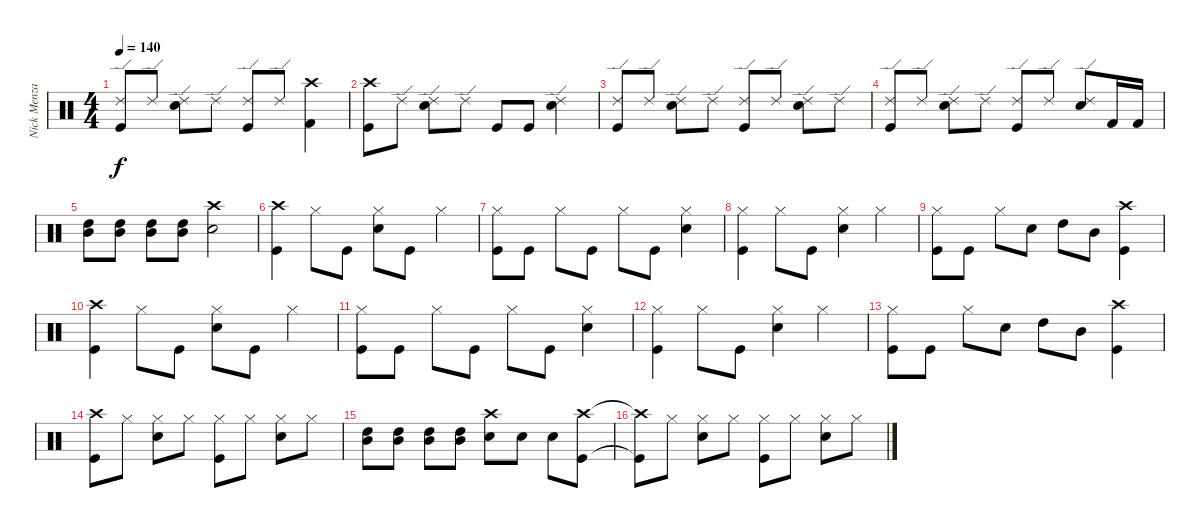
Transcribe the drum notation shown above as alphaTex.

\track ("Nick Menza (Drums)" "Nick Menza") {instrument percussion}
\staff {score}
\articulation defaults
\ts (4 4)
\tempo 140
\clef neutral
\ks c
("Ride (edge) 2" "Kick (hit)").8{dy f} "Ride (edge) 2".8 ("Ride (edge) 2" "Snare (hit) 2").8 "Ride (edge) 2".8 ("Ride (edge) 2" "Kick (hit)").8 "Ride (edge) 2".8 ("Kick (hit) 2" "Crash high (hit)").4 |
("Crash high (hit)" "Kick (hit)").8 "Ride (edge) 2".8 ("Ride (edge) 2" "Snare (hit) 2").8 "Ride (edge) 2".8 "Kick (hit)".8 "Kick (hit)".8 ("Ride (edge) 2" "Snare (hit) 2").4 |
("Ride (edge) 2" "Kick (hit)").8 "Ride (edge) 2".8 ("Ride (edge) 2" "Snare (hit) 2").8 "Ride (edge) 2".8 ("Ride (edge) 2" "Kick (hit)").8 "Ride (edge) 2".8 ("Ride (edge) 2" "Snare (hit) 2").8 "Ride (edge) 2".8 |
("Ride (edge) 2" "Kick (hit)").8 "Ride (edge) 2".8 ("Ride (edge) 2" "Snare (hit) 2").8 "Ride (edge) 2".8 ("Ride (edge) 2" "Kick (hit)").8 "Ride (edge) 2".8 ("Ride (edge) 2" "Snare (hit) 2").8 "Kick (hit) 2".16 "Kick (hit) 2".16 |
("High Tom (hit)" "Mid Tom (hit)").8 ("High Tom (hit)" "Mid Tom (hit)").8 ("High Tom (hit)" "Mid Tom (hit)").8 ("High Tom (hit)" "Mid Tom (hit)").8 ("Crash high (hit)" "Snare (hit) 2").2 |
("Crash high (hit)" "Kick (hit)").4 "Hi-Hat (closed)".8 "Kick (hit)".8 ("Hi-Hat (closed)" "Snare (hit) 2").8 "Kick (hit)".8 "Hi-Hat (closed)".4 |
("Hi-Hat (closed)" "Kick (hit)").8 "Kick (hit)".8 "Hi-Hat (closed)".8 "Kick (hit)".8 "Hi-Hat (closed)".8 "Kick (hit)".8 ("Hi-Hat (closed)" "Snare (hit) 2").4 |
("Hi-Hat (closed)" "Kick (hit)").4 "Hi-Hat (closed)".8 "Kick (hit)".8 ("Hi-Hat (closed)" "Snare (hit) 2").4 "Hi-Hat (closed)".4 |
("Hi-Hat (closed)" "Kick (hit)").8 "Kick (hit)".8 "Hi-Hat (closed)".8 "Snare (hit) 2".8 "High Tom (hit)".8 "Mid Tom (hit)".8 ("Crash high (hit)" "Kick (hit)").4 |
("Crash high (hit)" "Kick (hit)").4 "Hi-Hat (closed)".8 "Kick (hit)".8 ("Hi-Hat (closed)" "Snare (hit) 2").8 "Kick (hit)".8 "Hi-Hat (closed)".4 |
("Hi-Hat (closed)" "Kick (hit)").8 "Kick (hit)".8 "Hi-Hat (closed)".8 "Kick (hit)".8 "Hi-Hat (closed)".8 "Kick (hit)".8 ("Hi-Hat (closed)" "Snare (hit) 2").4 |
("Hi-Hat (closed)" "Kick (hit)").4 "Hi-Hat (closed)".8 "Kick (hit)".8 ("Hi-Hat (closed)" "Snare (hit) 2").4 "Hi-Hat (closed)".4 |
("Hi-Hat (closed)" "Kick (hit)").8 "Kick (hit)".8 "Hi-Hat (closed)".8 "Snare (hit) 2".8 "High Tom (hit)".8 "Mid Tom (hit)".8 ("Crash high (hit)" "Kick (hit)").4 |
("Crash high (hit)" "Kick (hit)").8 "Hi-Hat (closed)".8 ("Hi-Hat (closed)" "Snare (hit) 2").8 "Hi-Hat (closed)".8 ("Hi-Hat (closed)" "Kick (hit)").8 "Hi-Hat (closed)".8 ("Hi-Hat (closed)" "Snare (hit) 2").8 "Hi-Hat (closed)".8 |
("High Tom (hit)" "Mid Tom (hit)").8 ("High Tom (hit)" "Mid Tom (hit)").8 ("High Tom (hit)" "Mid Tom (hit)").8 ("High Tom (hit)" "Mid Tom (hit)").8 ("Crash high (hit)" "Snare (hit) 2").8 "Snare (hit) 2".8 "Snare (hit) 2".8 ("Crash high (hit)" "Kick (hit)").8 |
("Crash high (hit)"{t} "Kick (hit)"{t}).8 "Hi-Hat (closed)".8 ("Hi-Hat (closed)" "Snare (hit) 2").8 "Hi-Hat (closed)".8 ("Hi-Hat (closed)" "Kick (hit)").8 "Hi-Hat (closed)".8 ("Hi-Hat (closed)" "Snare (hit) 2").8 "Hi-Hat (closed)".8
